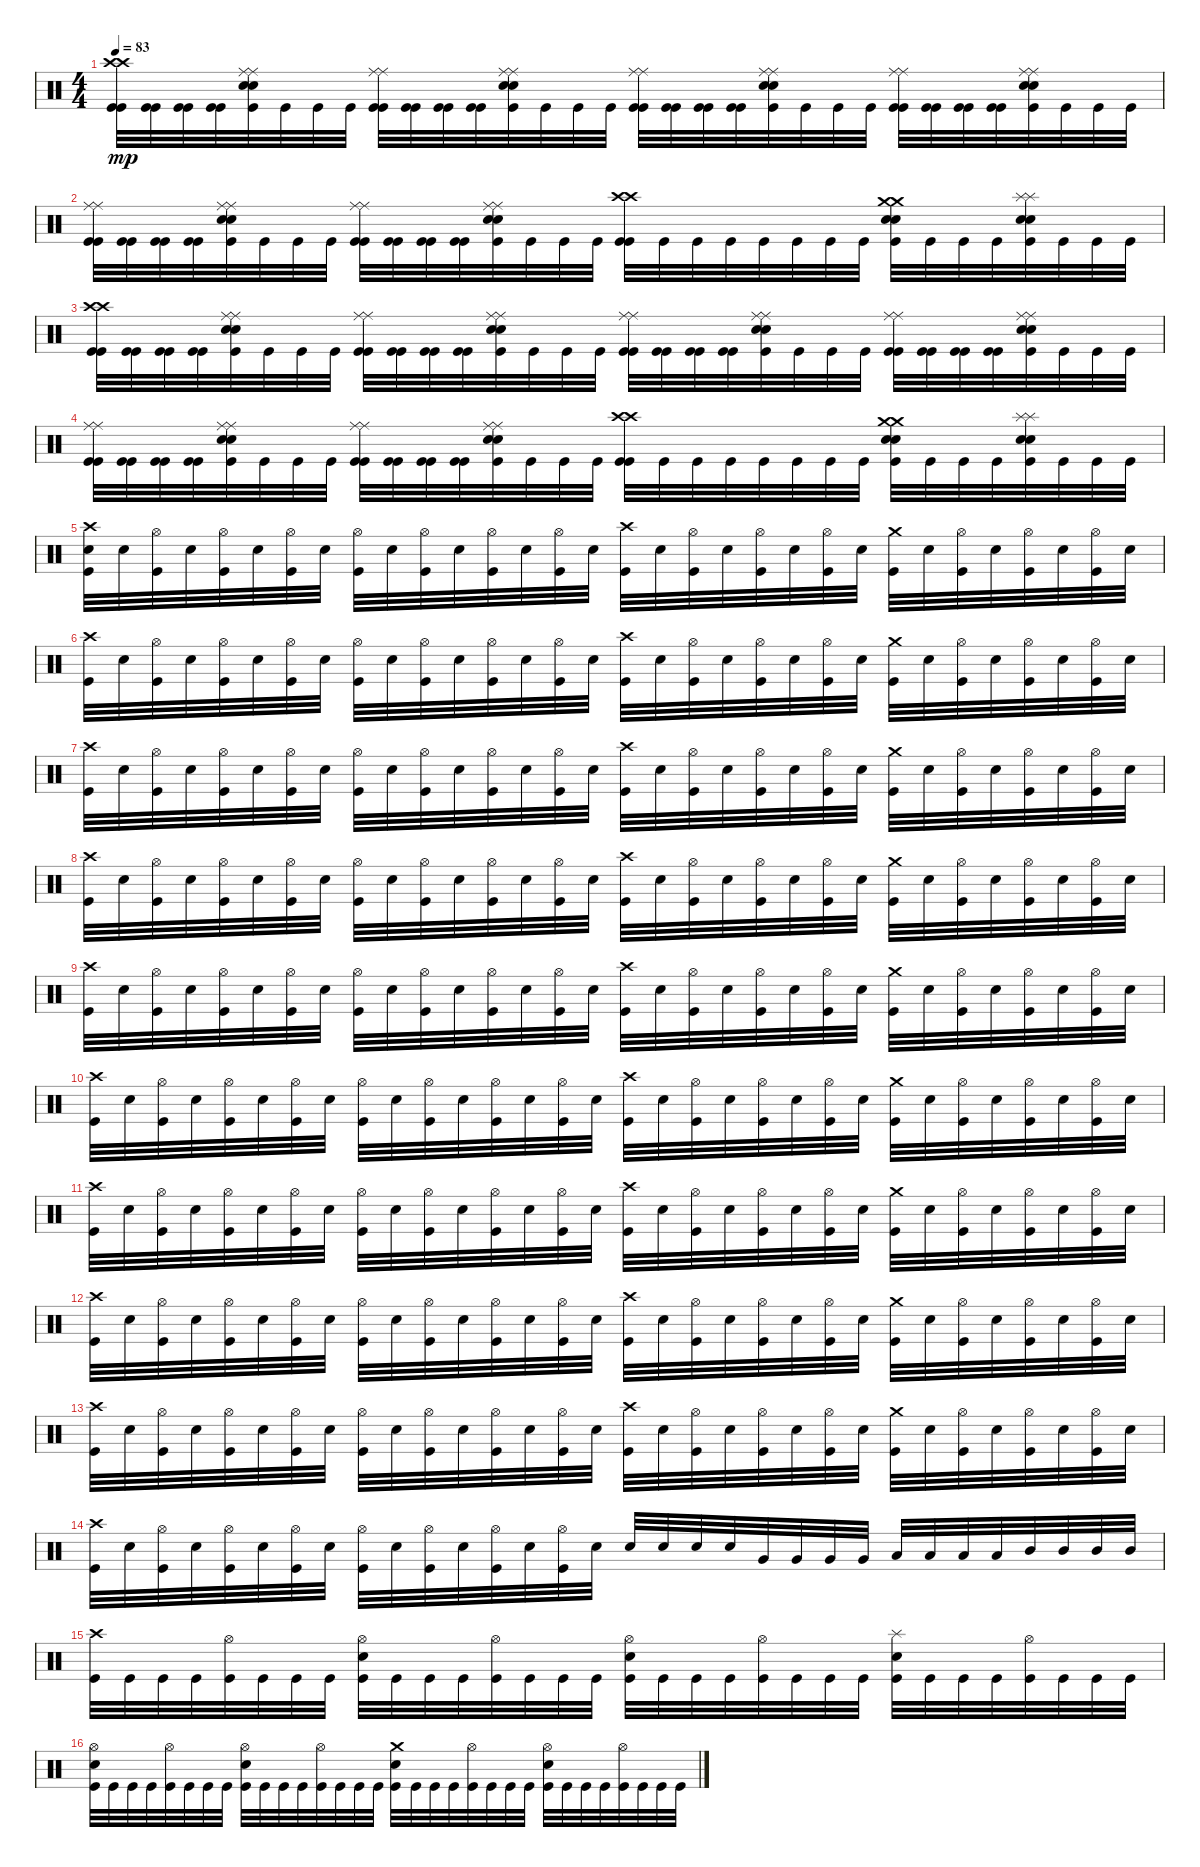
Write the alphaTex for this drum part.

\track "" {instrument percussion}
\staff {score}
\articulation defaults
\ts (4 4)
\tempo 83
\clef neutral
\ks c
("Kick (hit)" "Crash high (hit)" "Kick (hit)" "Crash high (hit)").32{dy mp} ("Kick (hit)" "Kick (hit)").32 ("Kick (hit)" "Kick (hit)").32 ("Kick (hit)" "Kick (hit)").32 ("Snare (hit) 2" "Ride (middle)" "Snare (hit) 2" "Ride (middle)" "Kick (hit)").32 "Kick (hit)".32 "Kick (hit)".32 "Kick (hit)".32 ("Kick (hit)" "Ride (middle)" "Kick (hit)" "Ride (middle)").32 ("Kick (hit)" "Kick (hit)").32 ("Kick (hit)" "Kick (hit)").32 ("Kick (hit)" "Kick (hit)").32 ("Snare (hit) 2" "Ride (middle)" "Snare (hit) 2" "Ride (middle)" "Kick (hit)").32 "Kick (hit)".32 "Kick (hit)".32 "Kick (hit)".32 ("Kick (hit)" "Ride (middle)" "Kick (hit)" "Ride (middle)").32 ("Kick (hit)" "Kick (hit)").32 ("Kick (hit)" "Kick (hit)").32 ("Kick (hit)" "Kick (hit)").32 ("Snare (hit) 2" "Ride (middle)" "Snare (hit) 2" "Ride (middle)" "Kick (hit)").32 "Kick (hit)".32 "Kick (hit)".32 "Kick (hit)".32 ("Kick (hit)" "Ride (middle)" "Kick (hit)" "Ride (middle)").32 ("Kick (hit)" "Kick (hit)").32 ("Kick (hit)" "Kick (hit)").32 ("Kick (hit)" "Kick (hit)").32 ("Snare (hit) 2" "Ride (middle)" "Snare (hit) 2" "Ride (middle)" "Kick (hit)").32 "Kick (hit)".32 "Kick (hit)".32 "Kick (hit)".32 |
("Kick (hit)" "Ride (middle)" "Kick (hit)" "Ride (middle)").32 ("Kick (hit)" "Kick (hit)").32 ("Kick (hit)" "Kick (hit)").32 ("Kick (hit)" "Kick (hit)").32 ("Snare (hit) 2" "Ride (middle)" "Snare (hit) 2" "Ride (middle)" "Kick (hit)").32 "Kick (hit)".32 "Kick (hit)".32 "Kick (hit)".32 ("Kick (hit)" "Ride (middle)" "Kick (hit)" "Ride (middle)").32 ("Kick (hit)" "Kick (hit)").32 ("Kick (hit)" "Kick (hit)").32 ("Kick (hit)" "Kick (hit)").32 ("Snare (hit) 2" "Ride (middle)" "Snare (hit) 2" "Ride (middle)" "Kick (hit)").32 "Kick (hit)".32 "Kick (hit)".32 "Kick (hit)".32 ("Crash high (hit)" "Kick (hit)" "Crash high (hit)" "Kick (hit)").32 "Kick (hit)".32 "Kick (hit)".32 "Kick (hit)".32 "Kick (hit)".32 "Kick (hit)".32 "Kick (hit)".32 "Kick (hit)".32 ("Snare (hit) 2" "Crash medium (hit)" "Snare (hit) 2" "Crash medium (hit)" "Kick (hit)").32 "Kick (hit)".32 "Kick (hit)".32 "Kick (hit)".32 ("Snare (hit) 2" "Splash (hit)" "Snare (hit) 2" "Splash (hit)" "Kick (hit)").32 "Kick (hit)".32 "Kick (hit)".32 "Kick (hit)".32 |
("Kick (hit)" "Crash high (hit)" "Kick (hit)" "Crash high (hit)").32 ("Kick (hit)" "Kick (hit)").32 ("Kick (hit)" "Kick (hit)").32 ("Kick (hit)" "Kick (hit)").32 ("Snare (hit) 2" "Ride (middle)" "Snare (hit) 2" "Ride (middle)" "Kick (hit)").32 "Kick (hit)".32 "Kick (hit)".32 "Kick (hit)".32 ("Kick (hit)" "Ride (middle)" "Kick (hit)" "Ride (middle)").32 ("Kick (hit)" "Kick (hit)").32 ("Kick (hit)" "Kick (hit)").32 ("Kick (hit)" "Kick (hit)").32 ("Snare (hit) 2" "Ride (middle)" "Snare (hit) 2" "Ride (middle)" "Kick (hit)").32 "Kick (hit)".32 "Kick (hit)".32 "Kick (hit)".32 ("Kick (hit)" "Ride (middle)" "Kick (hit)" "Ride (middle)").32 ("Kick (hit)" "Kick (hit)").32 ("Kick (hit)" "Kick (hit)").32 ("Kick (hit)" "Kick (hit)").32 ("Snare (hit) 2" "Ride (middle)" "Snare (hit) 2" "Ride (middle)" "Kick (hit)").32 "Kick (hit)".32 "Kick (hit)".32 "Kick (hit)".32 ("Kick (hit)" "Ride (middle)" "Kick (hit)" "Ride (middle)").32 ("Kick (hit)" "Kick (hit)").32 ("Kick (hit)" "Kick (hit)").32 ("Kick (hit)" "Kick (hit)").32 ("Snare (hit) 2" "Ride (middle)" "Snare (hit) 2" "Ride (middle)" "Kick (hit)").32 "Kick (hit)".32 "Kick (hit)".32 "Kick (hit)".32 |
("Kick (hit)" "Ride (middle)" "Kick (hit)" "Ride (middle)").32 ("Kick (hit)" "Kick (hit)").32 ("Kick (hit)" "Kick (hit)").32 ("Kick (hit)" "Kick (hit)").32 ("Snare (hit) 2" "Ride (middle)" "Snare (hit) 2" "Ride (middle)" "Kick (hit)").32 "Kick (hit)".32 "Kick (hit)".32 "Kick (hit)".32 ("Kick (hit)" "Ride (middle)" "Kick (hit)" "Ride (middle)").32 ("Kick (hit)" "Kick (hit)").32 ("Kick (hit)" "Kick (hit)").32 ("Kick (hit)" "Kick (hit)").32 ("Snare (hit) 2" "Ride (middle)" "Snare (hit) 2" "Ride (middle)" "Kick (hit)").32 "Kick (hit)".32 "Kick (hit)".32 "Kick (hit)".32 ("Crash high (hit)" "Kick (hit)" "Crash high (hit)" "Kick (hit)").32 "Kick (hit)".32 "Kick (hit)".32 "Kick (hit)".32 "Kick (hit)".32 "Kick (hit)".32 "Kick (hit)".32 "Kick (hit)".32 ("Snare (hit) 2" "Crash medium (hit)" "Snare (hit) 2" "Crash medium (hit)" "Kick (hit)").32 "Kick (hit)".32 "Kick (hit)".32 "Kick (hit)".32 ("Snare (hit) 2" "Splash (hit)" "Snare (hit) 2" "Splash (hit)" "Kick (hit)").32 "Kick (hit)".32 "Kick (hit)".32 "Kick (hit)".32 |
("Kick (hit)" "Crash high (hit)" "Snare (hit) 2").32 "Snare (hit) 2".32 ("Kick (hit)" "Hi-Hat (open)").32 "Snare (hit) 2".32 ("Kick (hit)" "Hi-Hat (open)").32 "Snare (hit) 2".32 ("Kick (hit)" "Hi-Hat (open)").32 "Snare (hit) 2".32 ("Kick (hit)" "Hi-Hat (open)").32 "Snare (hit) 2".32 ("Kick (hit)" "Hi-Hat (open)").32 "Snare (hit) 2".32 ("Kick (hit)" "Hi-Hat (open)").32 "Snare (hit) 2".32 ("Kick (hit)" "Hi-Hat (open)").32 "Snare (hit) 2".32 ("Kick (hit)" "Crash high (hit)").32 "Snare (hit) 2".32 ("Kick (hit)" "Hi-Hat (open)").32 "Snare (hit) 2".32 ("Kick (hit)" "Hi-Hat (open)").32 "Snare (hit) 2".32 ("Kick (hit)" "Hi-Hat (open)").32 "Snare (hit) 2".32 ("Kick (hit)" "Crash medium (hit)").32 "Snare (hit) 2".32 ("Kick (hit)" "Hi-Hat (open)").32 "Snare (hit) 2".32 ("Kick (hit)" "Hi-Hat (open)").32 "Snare (hit) 2".32 ("Kick (hit)" "Hi-Hat (open)").32 "Snare (hit) 2".32 |
("Kick (hit)" "Crash high (hit)").32 "Snare (hit) 2".32 ("Kick (hit)" "Hi-Hat (open)").32 "Snare (hit) 2".32 ("Kick (hit)" "Hi-Hat (open)").32 "Snare (hit) 2".32 ("Kick (hit)" "Hi-Hat (open)").32 "Snare (hit) 2".32 ("Kick (hit)" "Hi-Hat (open)").32 "Snare (hit) 2".32 ("Kick (hit)" "Hi-Hat (open)").32 "Snare (hit) 2".32 ("Kick (hit)" "Hi-Hat (open)").32 "Snare (hit) 2".32 ("Kick (hit)" "Hi-Hat (open)").32 "Snare (hit) 2".32 ("Kick (hit)" "Crash high (hit)").32 "Snare (hit) 2".32 ("Kick (hit)" "Hi-Hat (open)").32 "Snare (hit) 2".32 ("Kick (hit)" "Hi-Hat (open)").32 "Snare (hit) 2".32 ("Kick (hit)" "Hi-Hat (open)").32 "Snare (hit) 2".32 ("Kick (hit)" "Crash medium (hit)").32 "Snare (hit) 2".32 ("Kick (hit)" "Hi-Hat (open)").32 "Snare (hit) 2".32 ("Kick (hit)" "Hi-Hat (open)").32 "Snare (hit) 2".32 ("Kick (hit)" "Hi-Hat (open)").32 "Snare (hit) 2".32 |
("Kick (hit)" "Crash high (hit)").32 "Snare (hit) 2".32 ("Kick (hit)" "Hi-Hat (open)").32 "Snare (hit) 2".32 ("Kick (hit)" "Hi-Hat (open)").32 "Snare (hit) 2".32 ("Kick (hit)" "Hi-Hat (open)").32 "Snare (hit) 2".32 ("Kick (hit)" "Hi-Hat (open)").32 "Snare (hit) 2".32 ("Kick (hit)" "Hi-Hat (open)").32 "Snare (hit) 2".32 ("Kick (hit)" "Hi-Hat (open)").32 "Snare (hit) 2".32 ("Kick (hit)" "Hi-Hat (open)").32 "Snare (hit) 2".32 ("Kick (hit)" "Crash high (hit)").32 "Snare (hit) 2".32 ("Kick (hit)" "Hi-Hat (open)").32 "Snare (hit) 2".32 ("Kick (hit)" "Hi-Hat (open)").32 "Snare (hit) 2".32 ("Kick (hit)" "Hi-Hat (open)").32 "Snare (hit) 2".32 ("Kick (hit)" "Crash medium (hit)").32 "Snare (hit) 2".32 ("Kick (hit)" "Hi-Hat (open)").32 "Snare (hit) 2".32 ("Kick (hit)" "Hi-Hat (open)").32 "Snare (hit) 2".32 ("Kick (hit)" "Hi-Hat (open)").32 "Snare (hit) 2".32 |
("Kick (hit)" "Crash high (hit)").32 "Snare (hit) 2".32 ("Kick (hit)" "Hi-Hat (open)").32 "Snare (hit) 2".32 ("Kick (hit)" "Hi-Hat (open)").32 "Snare (hit) 2".32 ("Kick (hit)" "Hi-Hat (open)").32 "Snare (hit) 2".32 ("Kick (hit)" "Hi-Hat (open)").32 "Snare (hit) 2".32 ("Kick (hit)" "Hi-Hat (open)").32 "Snare (hit) 2".32 ("Kick (hit)" "Hi-Hat (open)").32 "Snare (hit) 2".32 ("Kick (hit)" "Hi-Hat (open)").32 "Snare (hit) 2".32 ("Kick (hit)" "Crash high (hit)").32 "Snare (hit) 2".32 ("Kick (hit)" "Hi-Hat (open)").32 "Snare (hit) 2".32 ("Kick (hit)" "Hi-Hat (open)").32 "Snare (hit) 2".32 ("Kick (hit)" "Hi-Hat (open)").32 "Snare (hit) 2".32 ("Kick (hit)" "Crash medium (hit)").32 "Snare (hit) 2".32 ("Kick (hit)" "Hi-Hat (open)").32 "Snare (hit) 2".32 ("Kick (hit)" "Hi-Hat (open)").32 "Snare (hit) 2".32 ("Kick (hit)" "Hi-Hat (open)").32 "Snare (hit) 2".32 |
("Kick (hit)" "Crash high (hit)").32 "Snare (hit) 2".32 ("Kick (hit)" "Hi-Hat (open)").32 "Snare (hit) 2".32 ("Kick (hit)" "Hi-Hat (open)").32 "Snare (hit) 2".32 ("Kick (hit)" "Hi-Hat (open)").32 "Snare (hit) 2".32 ("Kick (hit)" "Hi-Hat (open)").32 "Snare (hit) 2".32 ("Kick (hit)" "Hi-Hat (open)").32 "Snare (hit) 2".32 ("Kick (hit)" "Hi-Hat (open)").32 "Snare (hit) 2".32 ("Kick (hit)" "Hi-Hat (open)").32 "Snare (hit) 2".32 ("Kick (hit)" "Crash high (hit)").32 "Snare (hit) 2".32 ("Kick (hit)" "Hi-Hat (open)").32 "Snare (hit) 2".32 ("Kick (hit)" "Hi-Hat (open)").32 "Snare (hit) 2".32 ("Kick (hit)" "Hi-Hat (open)").32 "Snare (hit) 2".32 ("Kick (hit)" "Crash medium (hit)").32 "Snare (hit) 2".32 ("Kick (hit)" "Hi-Hat (open)").32 "Snare (hit) 2".32 ("Kick (hit)" "Hi-Hat (open)").32 "Snare (hit) 2".32 ("Kick (hit)" "Hi-Hat (open)").32 "Snare (hit) 2".32 |
("Kick (hit)" "Crash high (hit)").32 "Snare (hit) 2".32 ("Kick (hit)" "Hi-Hat (open)").32 "Snare (hit) 2".32 ("Kick (hit)" "Hi-Hat (open)").32 "Snare (hit) 2".32 ("Kick (hit)" "Hi-Hat (open)").32 "Snare (hit) 2".32 ("Kick (hit)" "Hi-Hat (open)").32 "Snare (hit) 2".32 ("Kick (hit)" "Hi-Hat (open)").32 "Snare (hit) 2".32 ("Kick (hit)" "Hi-Hat (open)").32 "Snare (hit) 2".32 ("Kick (hit)" "Hi-Hat (open)").32 "Snare (hit) 2".32 ("Kick (hit)" "Crash high (hit)").32 "Snare (hit) 2".32 ("Kick (hit)" "Hi-Hat (open)").32 "Snare (hit) 2".32 ("Kick (hit)" "Hi-Hat (open)").32 "Snare (hit) 2".32 ("Kick (hit)" "Hi-Hat (open)").32 "Snare (hit) 2".32 ("Kick (hit)" "Crash medium (hit)").32 "Snare (hit) 2".32 ("Kick (hit)" "Hi-Hat (open)").32 "Snare (hit) 2".32 ("Kick (hit)" "Hi-Hat (open)").32 "Snare (hit) 2".32 ("Kick (hit)" "Hi-Hat (open)").32 "Snare (hit) 2".32 |
("Kick (hit)" "Crash high (hit)").32 "Snare (hit) 2".32 ("Kick (hit)" "Hi-Hat (open)").32 "Snare (hit) 2".32 ("Kick (hit)" "Hi-Hat (open)").32 "Snare (hit) 2".32 ("Kick (hit)" "Hi-Hat (open)").32 "Snare (hit) 2".32 ("Kick (hit)" "Hi-Hat (open)").32 "Snare (hit) 2".32 ("Kick (hit)" "Hi-Hat (open)").32 "Snare (hit) 2".32 ("Kick (hit)" "Hi-Hat (open)").32 "Snare (hit) 2".32 ("Kick (hit)" "Hi-Hat (open)").32 "Snare (hit) 2".32 ("Kick (hit)" "Crash high (hit)").32 "Snare (hit) 2".32 ("Kick (hit)" "Hi-Hat (open)").32 "Snare (hit) 2".32 ("Kick (hit)" "Hi-Hat (open)").32 "Snare (hit) 2".32 ("Kick (hit)" "Hi-Hat (open)").32 "Snare (hit) 2".32 ("Kick (hit)" "Crash medium (hit)").32 "Snare (hit) 2".32 ("Kick (hit)" "Hi-Hat (open)").32 "Snare (hit) 2".32 ("Kick (hit)" "Hi-Hat (open)").32 "Snare (hit) 2".32 ("Kick (hit)" "Hi-Hat (open)").32 "Snare (hit) 2".32 |
("Kick (hit)" "Crash high (hit)").32 "Snare (hit) 2".32 ("Kick (hit)" "Hi-Hat (open)").32 "Snare (hit) 2".32 ("Kick (hit)" "Hi-Hat (open)").32 "Snare (hit) 2".32 ("Kick (hit)" "Hi-Hat (open)").32 "Snare (hit) 2".32 ("Kick (hit)" "Hi-Hat (open)").32 "Snare (hit) 2".32 ("Kick (hit)" "Hi-Hat (open)").32 "Snare (hit) 2".32 ("Kick (hit)" "Hi-Hat (open)").32 "Snare (hit) 2".32 ("Kick (hit)" "Hi-Hat (open)").32 "Snare (hit) 2".32 ("Kick (hit)" "Crash high (hit)").32 "Snare (hit) 2".32 ("Kick (hit)" "Hi-Hat (open)").32 "Snare (hit) 2".32 ("Kick (hit)" "Hi-Hat (open)").32 "Snare (hit) 2".32 ("Kick (hit)" "Hi-Hat (open)").32 "Snare (hit) 2".32 ("Kick (hit)" "Crash medium (hit)").32 "Snare (hit) 2".32 ("Kick (hit)" "Hi-Hat (open)").32 "Snare (hit) 2".32 ("Kick (hit)" "Hi-Hat (open)").32 "Snare (hit) 2".32 ("Kick (hit)" "Hi-Hat (open)").32 "Snare (hit) 2".32 |
("Kick (hit)" "Crash high (hit)").32 "Snare (hit) 2".32 ("Kick (hit)" "Hi-Hat (open)").32 "Snare (hit) 2".32 ("Kick (hit)" "Hi-Hat (open)").32 "Snare (hit) 2".32 ("Kick (hit)" "Hi-Hat (open)").32 "Snare (hit) 2".32 ("Kick (hit)" "Hi-Hat (open)").32 "Snare (hit) 2".32 ("Kick (hit)" "Hi-Hat (open)").32 "Snare (hit) 2".32 ("Kick (hit)" "Hi-Hat (open)").32 "Snare (hit) 2".32 ("Kick (hit)" "Hi-Hat (open)").32 "Snare (hit) 2".32 ("Kick (hit)" "Crash high (hit)").32 "Snare (hit) 2".32 ("Kick (hit)" "Hi-Hat (open)").32 "Snare (hit) 2".32 ("Kick (hit)" "Hi-Hat (open)").32 "Snare (hit) 2".32 ("Kick (hit)" "Hi-Hat (open)").32 "Snare (hit) 2".32 ("Kick (hit)" "Crash medium (hit)").32 "Snare (hit) 2".32 ("Kick (hit)" "Hi-Hat (open)").32 "Snare (hit) 2".32 ("Kick (hit)" "Hi-Hat (open)").32 "Snare (hit) 2".32 ("Kick (hit)" "Hi-Hat (open)").32 "Snare (hit) 2".32 |
("Kick (hit)" "Crash high (hit)").32 "Snare (hit) 2".32 ("Kick (hit)" "Hi-Hat (open)").32 "Snare (hit) 2".32 ("Kick (hit)" "Hi-Hat (open)").32 "Snare (hit) 2".32 ("Kick (hit)" "Hi-Hat (open)").32 "Snare (hit) 2".32 ("Kick (hit)" "Hi-Hat (open)").32 "Snare (hit) 2".32 ("Kick (hit)" "Hi-Hat (open)").32 "Snare (hit) 2".32 ("Kick (hit)" "Hi-Hat (open)").32 "Snare (hit) 2".32 ("Kick (hit)" "Hi-Hat (open)").32 "Snare (hit) 2".32 "Snare (hit) 2".32 "Snare (hit) 2".32 "Snare (hit) 2".32 "Snare (hit) 2".32 "Very Low Tom (hit)".32 "Very Low Tom (hit)".32 "Very Low Tom (hit)".32 "Very Low Tom (hit)".32 "Low Tom (hit)".32 "Low Tom (hit)".32 "Low Tom (hit)".32 "Low Tom (hit)".32 "Mid Tom (hit)".32 "Mid Tom (hit)".32 "Mid Tom (hit)".32 "Mid Tom (hit)".32 |
("Crash high (hit)" "Kick (hit)").32 "Kick (hit)".32 "Kick (hit)".32 "Kick (hit)".32 ("Kick (hit)" "Hi-Hat (open)").32 "Kick (hit)".32 "Kick (hit)".32 "Kick (hit)".32 ("Kick (hit)" "Hi-Hat (open)" "Snare (hit) 2").32 "Kick (hit)".32 "Kick (hit)".32 "Kick (hit)".32 ("Kick (hit)" "Hi-Hat (open)").32 "Kick (hit)".32 "Kick (hit)".32 "Kick (hit)".32 ("Kick (hit)" "Hi-Hat (open)" "Snare (hit) 2").32 "Kick (hit)".32 "Kick (hit)".32 "Kick (hit)".32 ("Kick (hit)" "Hi-Hat (open)").32 "Kick (hit)".32 "Kick (hit)".32 "Kick (hit)".32 ("Kick (hit)" "Snare (hit) 2" "Splash (hit)").32 "Kick (hit)".32 "Kick (hit)".32 "Kick (hit)".32 ("Kick (hit)" "Hi-Hat (open)").32 "Kick (hit)".32 "Kick (hit)".32 "Kick (hit)".32 |
("Kick (hit)" "Hi-Hat (open)" "Snare (hit) 2").32 "Kick (hit)".32 "Kick (hit)".32 "Kick (hit)".32 ("Kick (hit)" "Hi-Hat (open)").32 "Kick (hit)".32 "Kick (hit)".32 "Kick (hit)".32 ("Kick (hit)" "Hi-Hat (open)" "Snare (hit) 2").32 "Kick (hit)".32 "Kick (hit)".32 "Kick (hit)".32 ("Kick (hit)" "Hi-Hat (open)").32 "Kick (hit)".32 "Kick (hit)".32 "Kick (hit)".32 ("Kick (hit)" "Crash medium (hit)" "Snare (hit) 2").32 "Kick (hit)".32 "Kick (hit)".32 "Kick (hit)".32 ("Kick (hit)" "Hi-Hat (open)").32 "Kick (hit)".32 "Kick (hit)".32 "Kick (hit)".32 ("Kick (hit)" "Hi-Hat (open)" "Snare (hit) 2").32 "Kick (hit)".32 "Kick (hit)".32 "Kick (hit)".32 ("Kick (hit)" "Hi-Hat (open)").32 "Kick (hit)".32 "Kick (hit)".32 "Kick (hit)".32
